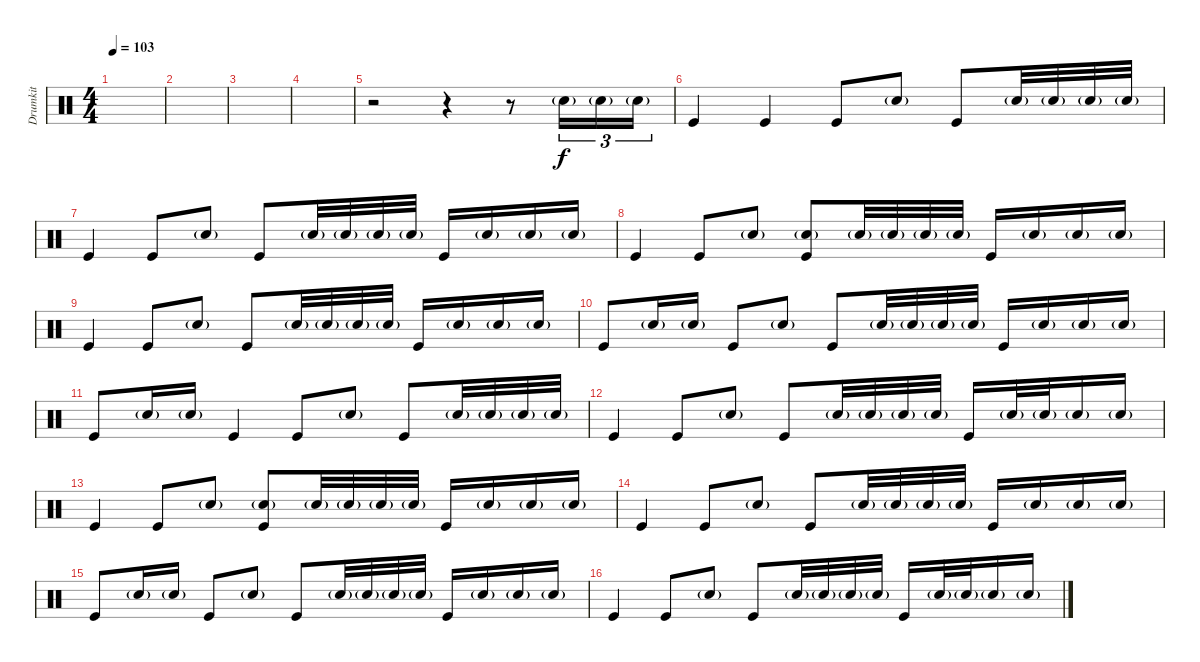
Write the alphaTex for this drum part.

\track ("Drumkit" "Drumkit") {instrument percussion}
\staff {score}
\articulation defaults
\ts (4 4)
\tempo 103
\clef neutral
\ks c
|
|
|
|
r.2 r.4 r.8 "Snare (hit) 2"{g}.16{tu (3 2)} "Snare (hit) 2"{g}.16{tu (3 2)} "Snare (hit) 2"{g}.16{tu (3 2)} |
"Kick (hit)".4 "Kick (hit)".4 "Kick (hit)".8 "Snare (hit) 2"{g}.8 "Kick (hit)".8 "Snare (hit) 2"{g}.32 "Snare (hit) 2"{g}.32 "Snare (hit) 2"{g}.32 "Snare (hit) 2"{g}.32 |
"Kick (hit)".4 "Kick (hit)".8 "Snare (hit) 2"{g}.8 "Kick (hit)".8 "Snare (hit) 2"{g}.32 "Snare (hit) 2"{g}.32 "Snare (hit) 2"{g}.32 "Snare (hit) 2"{g}.32 "Kick (hit)".16 "Snare (hit) 2"{g}.16 "Snare (hit) 2"{g}.16 "Snare (hit) 2"{g}.16 |
"Kick (hit)".4 "Kick (hit)".8 "Snare (hit) 2"{g}.8 ("Kick (hit)" "Snare (hit) 2"{g}).8 "Snare (hit) 2"{g}.32 "Snare (hit) 2"{g}.32 "Snare (hit) 2"{g}.32 "Snare (hit) 2"{g}.32 "Kick (hit)".16 "Snare (hit) 2"{g}.16 "Snare (hit) 2"{g}.16 "Snare (hit) 2"{g}.16 |
"Kick (hit)".4 "Kick (hit)".8 "Snare (hit) 2"{g}.8 "Kick (hit)".8 "Snare (hit) 2"{g}.32 "Snare (hit) 2"{g}.32 "Snare (hit) 2"{g}.32 "Snare (hit) 2"{g}.32 "Kick (hit)".16 "Snare (hit) 2"{g}.16 "Snare (hit) 2"{g}.16 "Snare (hit) 2"{g}.16 |
"Kick (hit)".8 "Snare (hit) 2"{g}.16 "Snare (hit) 2"{g}.16 "Kick (hit)".8 "Snare (hit) 2"{g}.8 "Kick (hit)".8 "Snare (hit) 2"{g}.32 "Snare (hit) 2"{g}.32 "Snare (hit) 2"{g}.32 "Snare (hit) 2"{g}.32 "Kick (hit)".16 "Snare (hit) 2"{g}.16 "Snare (hit) 2"{g}.16 "Snare (hit) 2"{g}.16 |
"Kick (hit)".8 "Snare (hit) 2"{g}.16 "Snare (hit) 2"{g}.16 "Kick (hit)".4 "Kick (hit)".8 "Snare (hit) 2"{g}.8 "Kick (hit)".8 "Snare (hit) 2"{g}.32 "Snare (hit) 2"{g}.32 "Snare (hit) 2"{g}.32 "Snare (hit) 2"{g}.32 |
"Kick (hit)".4 "Kick (hit)".8 "Snare (hit) 2"{g}.8 "Kick (hit)".8 "Snare (hit) 2"{g}.32 "Snare (hit) 2"{g}.32 "Snare (hit) 2"{g}.32 "Snare (hit) 2"{g}.32 "Kick (hit)".16 "Snare (hit) 2"{g}.32 "Snare (hit) 2"{g}.32 "Snare (hit) 2"{g}.16 "Snare (hit) 2"{g}.16 |
"Kick (hit)".4 "Kick (hit)".8 "Snare (hit) 2"{g}.8 ("Kick (hit)" "Snare (hit) 2"{g}).8 "Snare (hit) 2"{g}.32 "Snare (hit) 2"{g}.32 "Snare (hit) 2"{g}.32 "Snare (hit) 2"{g}.32 "Kick (hit)".16 "Snare (hit) 2"{g}.16 "Snare (hit) 2"{g}.16 "Snare (hit) 2"{g}.16 |
"Kick (hit)".4 "Kick (hit)".8 "Snare (hit) 2"{g}.8 "Kick (hit)".8 "Snare (hit) 2"{g}.32 "Snare (hit) 2"{g}.32 "Snare (hit) 2"{g}.32 "Snare (hit) 2"{g}.32 "Kick (hit)".16 "Snare (hit) 2"{g}.16 "Snare (hit) 2"{g}.16 "Snare (hit) 2"{g}.16 |
"Kick (hit)".8 "Snare (hit) 2"{g}.16 "Snare (hit) 2"{g}.16 "Kick (hit)".8 "Snare (hit) 2"{g}.8 "Kick (hit)".8 "Snare (hit) 2"{g}.32 "Snare (hit) 2"{g}.32 "Snare (hit) 2"{g}.32 "Snare (hit) 2"{g}.32 "Kick (hit)".16 "Snare (hit) 2"{g}.16 "Snare (hit) 2"{g}.16 "Snare (hit) 2"{g}.16 |
"Kick (hit)".4 "Kick (hit)".8 "Snare (hit) 2"{g}.8 "Kick (hit)".8 "Snare (hit) 2"{g}.32 "Snare (hit) 2"{g}.32 "Snare (hit) 2"{g}.32 "Snare (hit) 2"{g}.32 "Kick (hit)".16 "Snare (hit) 2"{g}.32 "Snare (hit) 2"{g}.32 "Snare (hit) 2"{g}.16 "Snare (hit) 2"{g}.16
